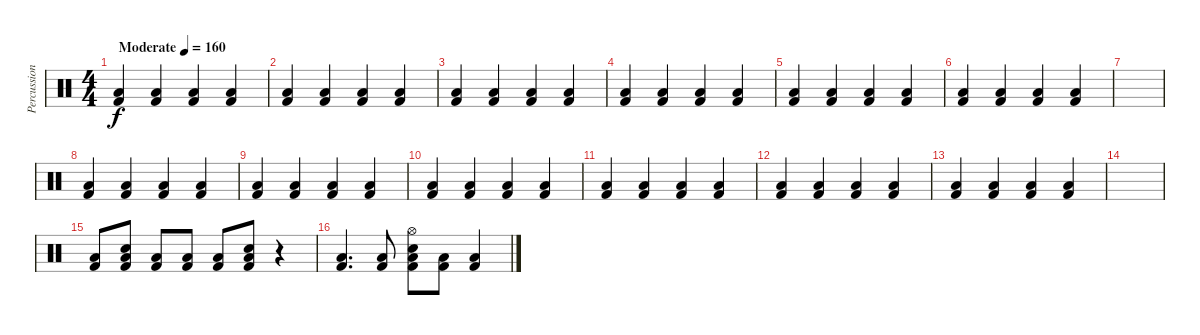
\track ("Percussion" "Percussion") {instrument percussion}
\staff {score}
\articulation defaults
\ts (4 4)
\tempo (160 "Moderate")
\clef neutral
\ks c
("Kick (hit) 2" "Low Floor Tom (hit)").4{dy f} ("Kick (hit) 2" "Low Floor Tom (hit)").4 ("Kick (hit) 2" "Low Floor Tom (hit)").4 ("Kick (hit) 2" "Low Floor Tom (hit)").4 |
("Kick (hit) 2" "Low Floor Tom (hit)").4 ("Kick (hit) 2" "Low Floor Tom (hit)").4 ("Kick (hit) 2" "Low Floor Tom (hit)").4 ("Kick (hit) 2" "Low Floor Tom (hit)").4 |
("Kick (hit) 2" "Low Floor Tom (hit)").4 ("Kick (hit) 2" "Low Floor Tom (hit)").4 ("Kick (hit) 2" "Low Floor Tom (hit)").4 ("Kick (hit) 2" "Low Floor Tom (hit)").4 |
("Kick (hit) 2" "Low Floor Tom (hit)").4 ("Kick (hit) 2" "Low Floor Tom (hit)").4 ("Kick (hit) 2" "Low Floor Tom (hit)").4 ("Kick (hit) 2" "Low Floor Tom (hit)").4 |
("Kick (hit) 2" "Low Floor Tom (hit)").4 ("Kick (hit) 2" "Low Floor Tom (hit)").4 ("Kick (hit) 2" "Low Floor Tom (hit)").4 ("Kick (hit) 2" "Low Floor Tom (hit)").4 |
("Kick (hit) 2" "Low Floor Tom (hit)").4 ("Kick (hit) 2" "Low Floor Tom (hit)").4 ("Kick (hit) 2" "Low Floor Tom (hit)").4 ("Kick (hit) 2" "Low Floor Tom (hit)").4 |
|
("Kick (hit) 2" "Low Floor Tom (hit)").4 ("Kick (hit) 2" "Low Floor Tom (hit)").4 ("Kick (hit) 2" "Low Floor Tom (hit)").4 ("Kick (hit) 2" "Low Floor Tom (hit)").4 |
("Kick (hit) 2" "Low Floor Tom (hit)").4 ("Kick (hit) 2" "Low Floor Tom (hit)").4 ("Kick (hit) 2" "Low Floor Tom (hit)").4 ("Kick (hit) 2" "Low Floor Tom (hit)").4 |
("Kick (hit) 2" "Low Floor Tom (hit)").4 ("Kick (hit) 2" "Low Floor Tom (hit)").4 ("Kick (hit) 2" "Low Floor Tom (hit)").4 ("Kick (hit) 2" "Low Floor Tom (hit)").4 |
("Kick (hit) 2" "Low Floor Tom (hit)").4 ("Kick (hit) 2" "Low Floor Tom (hit)").4 ("Kick (hit) 2" "Low Floor Tom (hit)").4 ("Kick (hit) 2" "Low Floor Tom (hit)").4 |
("Kick (hit) 2" "Low Floor Tom (hit)").4 ("Kick (hit) 2" "Low Floor Tom (hit)").4 ("Kick (hit) 2" "Low Floor Tom (hit)").4 ("Kick (hit) 2" "Low Floor Tom (hit)").4 |
("Kick (hit) 2" "Low Floor Tom (hit)").4 ("Kick (hit) 2" "Low Floor Tom (hit)").4 ("Kick (hit) 2" "Low Floor Tom (hit)").4 ("Kick (hit) 2" "Low Floor Tom (hit)").4 |
|
("Kick (hit) 2" "Low Floor Tom (hit)").8{volume 12} ("Snare (hit) 2" "Kick (hit) 2" "Low Floor Tom (hit)").8 ("Kick (hit) 2" "Low Floor Tom (hit)").8 ("Kick (hit) 2" "Low Floor Tom (hit)").8 ("Kick (hit) 2" "Low Floor Tom (hit)").8 ("Snare (hit) 2" "Kick (hit) 2" "Low Floor Tom (hit)").8 r.4 |
("Kick (hit) 2" "Low Floor Tom (hit)").4{d} ("Kick (hit) 2" "Low Floor Tom (hit)").8 ("Hi-Hat (open)" "Snare (hit) 2" "Kick (hit) 2" "Low Floor Tom (hit)").8 ("Kick (hit) 2" "Low Floor Tom (hit)").8 ("Kick (hit) 2" "Low Floor Tom (hit)").4
